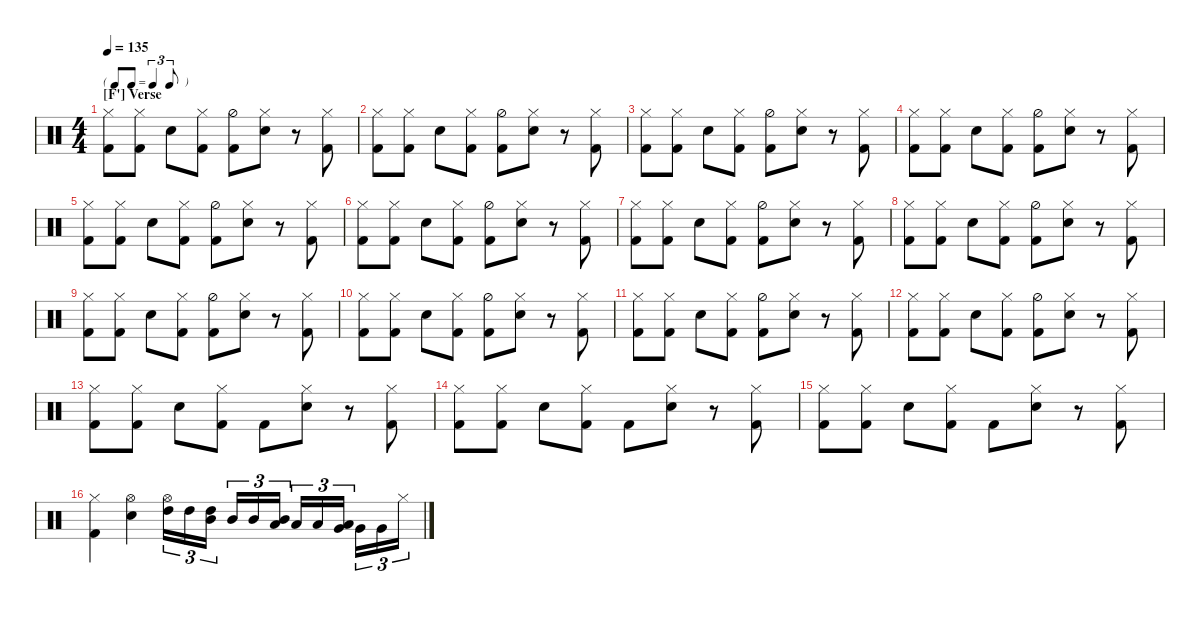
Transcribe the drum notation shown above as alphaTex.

\defaultSystemsLayout 4
\hideDynamics
\bracketExtendMode nobrackets
\singleTrackTrackNamePolicy hidden
\multiTrackTrackNamePolicy hidden
\firstSystemTrackNameMode fullname
\firstSystemTrackNameOrientation horizontal
\otherSystemsTrackNameOrientation horizontal
\track ("Drum" "Drums") {instrument percussion}
\staff {score}
\articulation defaults
\ts (4 4)
\tf triplet8th
\section ("F'" "Verse")
\scale
0.238636
\tempo 135
\accidentals auto
\clef neutral
\ottava regular
\simile none
\scale
0.25
\ks c
("Kick (hit) 2" "Hi-Hat (closed)").8{dy f beam Down} ("Kick (hit) 2" "Hi-Hat (closed)").8{beam Down} "Snare (hit) 2".8{beam Down} ("Kick (hit) 2" "Hi-Hat (closed)").8{beam Down} ("Kick (hit) 2" "Hi-Hat (half)").8{beam Down} ("Snare (hit) 2" "Hi-Hat (closed)").8{beam Down} r.8{beam Down} ("Kick (hit) 2" "Hi-Hat (closed)").8{beam Down} |
\scale
0.284091
\scale
0.25 ("Kick (hit) 2" "Hi-Hat (closed)").8{beam Down} ("Kick (hit) 2" "Hi-Hat (closed)").8{beam Down} "Snare (hit) 2".8{beam Down} ("Kick (hit) 2" "Hi-Hat (closed)").8{beam Down} ("Kick (hit) 2" "Hi-Hat (half)").8{beam Down} ("Snare (hit) 2" "Hi-Hat (closed)").8{beam Down} r.8{beam Down} ("Kick (hit) 2" "Hi-Hat (closed)").8{beam Down} |
\scale
0.238636
\scale
0.25 ("Kick (hit) 2" "Hi-Hat (closed)").8{beam Down} ("Kick (hit) 2" "Hi-Hat (closed)").8{beam Down} "Snare (hit) 2".8{beam Down} ("Kick (hit) 2" "Hi-Hat (closed)").8{beam Down} ("Kick (hit) 2" "Hi-Hat (half)").8{beam Down} ("Snare (hit) 2" "Hi-Hat (closed)").8{beam Down} r.8{beam Down} ("Kick (hit) 2" "Hi-Hat (closed)").8{beam Down} |
\scale
0.238636
\scale
0.25 ("Kick (hit) 2" "Hi-Hat (closed)").8{beam Down} ("Kick (hit) 2" "Hi-Hat (closed)").8{beam Down} "Snare (hit) 2".8{beam Down} ("Kick (hit) 2" "Hi-Hat (closed)").8{beam Down} ("Kick (hit) 2" "Hi-Hat (half)").8{beam Down} ("Snare (hit) 2" "Hi-Hat (closed)").8{beam Down} r.8{beam Down} ("Kick (hit) 2" "Hi-Hat (closed)").8{beam Down} |
\scale
0.225806
\scale
0.25 ("Kick (hit) 2" "Hi-Hat (closed)").8{beam Down} ("Kick (hit) 2" "Hi-Hat (closed)").8{beam Down} "Snare (hit) 2".8{beam Down} ("Kick (hit) 2" "Hi-Hat (closed)").8{beam Down} ("Kick (hit) 2" "Hi-Hat (half)").8{beam Down} ("Snare (hit) 2" "Hi-Hat (closed)").8{beam Down} r.8{beam Down} ("Kick (hit) 2" "Hi-Hat (closed)").8{beam Down} |
\scale
0.322581
\scale
0.25 ("Kick (hit) 2" "Hi-Hat (closed)").8{beam Down} ("Kick (hit) 2" "Hi-Hat (closed)").8{beam Down} "Snare (hit) 2".8{beam Down} ("Kick (hit) 2" "Hi-Hat (closed)").8{beam Down} ("Kick (hit) 2" "Hi-Hat (half)").8{beam Down} ("Snare (hit) 2" "Hi-Hat (closed)").8{beam Down} r.8{beam Down} ("Kick (hit) 2" "Hi-Hat (closed)").8{beam Down} |
\scale
0.225806
\scale
0.25 ("Kick (hit) 2" "Hi-Hat (closed)").8{beam Down} ("Kick (hit) 2" "Hi-Hat (closed)").8{beam Down} "Snare (hit) 2".8{beam Down} ("Kick (hit) 2" "Hi-Hat (closed)").8{beam Down} ("Kick (hit) 2" "Hi-Hat (half)").8{beam Down} ("Snare (hit) 2" "Hi-Hat (closed)").8{beam Down} r.8{beam Down} ("Kick (hit) 2" "Hi-Hat (closed)").8{beam Down} |
\scale
0.225806
\scale
0.25 ("Kick (hit) 2" "Hi-Hat (closed)").8{beam Down} ("Kick (hit) 2" "Hi-Hat (closed)").8{beam Down} "Snare (hit) 2".8{beam Down} ("Kick (hit) 2" "Hi-Hat (closed)").8{beam Down} ("Kick (hit) 2" "Hi-Hat (half)").8{beam Down} ("Snare (hit) 2" "Hi-Hat (closed)").8{beam Down} r.8{beam Down} ("Kick (hit) 2" "Hi-Hat (closed)").8{beam Down} |
\scale
0.238636
\scale
0.25 ("Kick (hit) 2" "Hi-Hat (closed)").8{beam Down} ("Kick (hit) 2" "Hi-Hat (closed)").8{beam Down} "Snare (hit) 2".8{beam Down} ("Kick (hit) 2" "Hi-Hat (closed)").8{beam Down} ("Kick (hit) 2" "Hi-Hat (half)").8{beam Down} ("Snare (hit) 2" "Hi-Hat (closed)").8{beam Down} r.8{beam Down} ("Kick (hit) 2" "Hi-Hat (closed)").8{beam Down} |
\scale
0.284091
\scale
0.25 ("Kick (hit) 2" "Hi-Hat (closed)").8{beam Down} ("Kick (hit) 2" "Hi-Hat (closed)").8{beam Down} "Snare (hit) 2".8{beam Down} ("Kick (hit) 2" "Hi-Hat (closed)").8{beam Down} ("Kick (hit) 2" "Hi-Hat (half)").8{beam Down} ("Snare (hit) 2" "Hi-Hat (closed)").8{beam Down} r.8{beam Down} ("Kick (hit) 2" "Hi-Hat (closed)").8{beam Down} |
\scale
0.238636
\scale
0.25 ("Kick (hit) 2" "Hi-Hat (closed)").8{beam Down} ("Kick (hit) 2" "Hi-Hat (closed)").8{beam Down} "Snare (hit) 2".8{beam Down} ("Kick (hit) 2" "Hi-Hat (closed)").8{beam Down} ("Kick (hit) 2" "Hi-Hat (half)").8{beam Down} ("Snare (hit) 2" "Hi-Hat (closed)").8{beam Down} r.8{beam Down} ("Kick (hit) 2" "Hi-Hat (closed)").8{beam Down} |
\scale
0.238636
\scale
0.25 ("Kick (hit) 2" "Hi-Hat (closed)").8{beam Down} ("Kick (hit) 2" "Hi-Hat (closed)").8{beam Down} "Snare (hit) 2".8{beam Down} ("Kick (hit) 2" "Hi-Hat (closed)").8{beam Down} ("Kick (hit) 2" "Hi-Hat (half)").8{beam Down} ("Snare (hit) 2" "Hi-Hat (closed)").8{beam Down} r.8{beam Down} ("Kick (hit) 2" "Hi-Hat (closed)").8{beam Down} |
\scale
0.25
\scale
0.197287 ("Kick (hit) 2" "Hi-Hat (closed)").8{beam Down} ("Kick (hit) 2" "Hi-Hat (closed)").8{beam Down} "Snare (hit) 2".8{beam Down} ("Kick (hit) 2" "Hi-Hat (closed)").8{beam Down} "Kick (hit) 2".8{beam Down} ("Snare (hit) 2" "Hi-Hat (closed)").8{beam Down} r.8{beam Down} ("Kick (hit) 2" "Hi-Hat (closed)").8{beam Down} |
\scale
0.270833
\scale
0.197287 ("Kick (hit) 2" "Hi-Hat (closed)").8{beam Down} ("Kick (hit) 2" "Hi-Hat (closed)").8{beam Down} "Snare (hit) 2".8{beam Down} ("Kick (hit) 2" "Hi-Hat (closed)").8{beam Down} "Kick (hit) 2".8{beam Down} ("Snare (hit) 2" "Hi-Hat (closed)").8{beam Down} r.8{beam Down} ("Kick (hit) 2" "Hi-Hat (closed)").8{beam Down} |
\scale
0.21875
\scale
0.197287 ("Kick (hit) 2" "Hi-Hat (closed)").8{beam Down} ("Kick (hit) 2" "Hi-Hat (closed)").8{beam Down} "Snare (hit) 2".8{beam Down} ("Kick (hit) 2" "Hi-Hat (closed)").8{beam Down} "Kick (hit) 2".8{beam Down} ("Snare (hit) 2" "Hi-Hat (closed)").8{beam Down} r.8{beam Down} ("Kick (hit) 2" "Hi-Hat (closed)").8{beam Down} |
\scale
0.260417
\scale
0.408138 ("Kick (hit) 2" "Hi-Hat (closed)").4{beam Down} ("Snare (hit) 2" "Hi-Hat (open)").4{beam Down} ("Hi-Hat (open)" "High Tom (hit)").16{tu (3 2) beam Down} "High Tom (hit)".16{tu (3 2) beam Down} ("High Tom (hit)" "Mid Tom (hit)").16{tu (3 2) beam Down} "Mid Tom (hit)".16{tu (3 2) beam Up} "Mid Tom (hit)".16{tu (3 2) beam Up} ("Mid Tom (hit)" "Low Tom (hit)").16{tu (3 2) beam Up} "Low Tom (hit)".16{tu (3 2) beam Up} "Low Tom (hit)".16{tu (3 2) beam Up} ("Low Tom (hit)" "Very Low Tom (hit)").16{tu (3 2) beam Up} "Very Low Tom (hit)".16{tu (3 2) beam Down} "Very Low Tom (hit)".16{tu (3 2) beam Down} "Hi-Hat (closed)".16{tu (3 2) beam Down}
